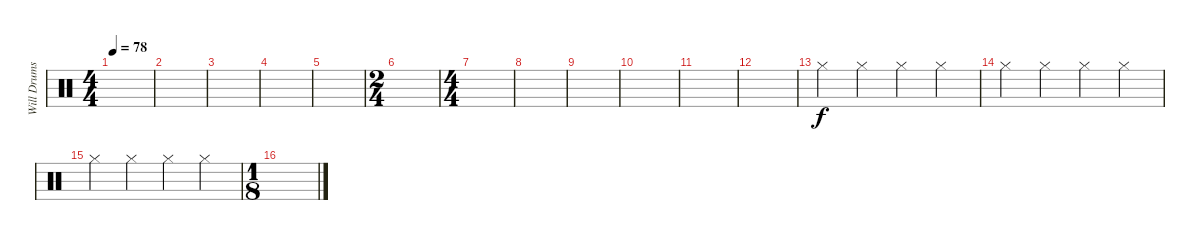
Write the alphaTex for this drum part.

\track ("Will Drums" "Will Drums") {instrument percussion}
\staff {score}
\articulation defaults
\ts (4 4)
\tempo 78
\clef neutral
\ks c
|
|
|
|
|
\ts (2 4)
|
\ts (4 4)
|
|
|
|
|
|
"Hi-Hat (closed)".4 "Hi-Hat (closed)".4 "Hi-Hat (closed)".4 "Hi-Hat (closed)".4 |
"Hi-Hat (closed)".4 "Hi-Hat (closed)".4 "Hi-Hat (closed)".4 "Hi-Hat (closed)".4 |
"Hi-Hat (closed)".4 "Hi-Hat (closed)".4 "Hi-Hat (closed)".4 "Hi-Hat (closed)".4 |
\ts (1 8)
